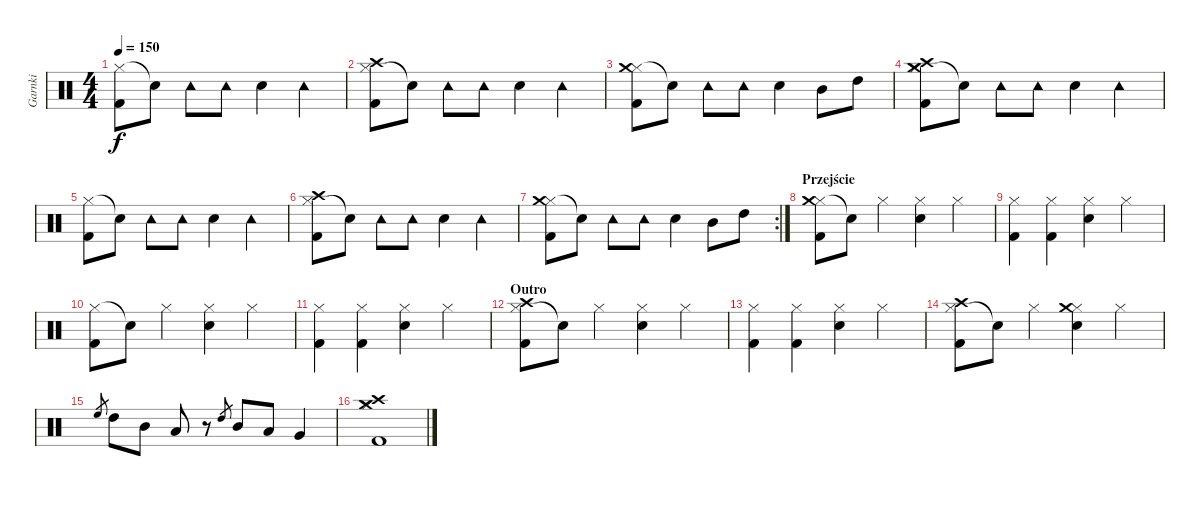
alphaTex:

\track ("Garnki" "Garnki") {instrument percussion}
\staff {score}
\articulation defaults
\ts (4 4)
\tempo 150
\clef neutral
\ks c
("Hi-Hat (closed)" "Kick (hit) 2").8{dy f} "Snare (hit)"{t}.8 "Tambourine (hit)".8 "Tambourine (hit)".8 "Snare (hit) 2".4 "Tambourine (hit)".4 |
("Hi-Hat (closed)" "Crash high (hit)" "Kick (hit) 2").8 "Snare (hit)"{t}.8 "Tambourine (hit)".8 "Tambourine (hit)".8 "Snare (hit) 2".4 "Tambourine (hit)".4 |
("Hi-Hat (closed)" "Crash medium (hit)" "Kick (hit) 2").8 "Snare (hit)"{t}.8 "Tambourine (hit)".8 "Tambourine (hit)".8 "Snare (hit) 2".4 "Mid Tom (hit)".8 "High Tom (hit)".8 |
("Hi-Hat (closed)" "Crash medium (hit)" "Kick (hit) 2" "Crash high (hit)").8 "Snare (hit)"{t}.8 "Tambourine (hit)".8 "Tambourine (hit)".8 "Snare (hit) 2".4 "Tambourine (hit)".4 |
("Hi-Hat (closed)" "Kick (hit) 2").8 "Snare (hit)"{t}.8 "Tambourine (hit)".8 "Tambourine (hit)".8 "Snare (hit) 2".4 "Tambourine (hit)".4 |
("Hi-Hat (closed)" "Crash high (hit)" "Kick (hit) 2").8 "Snare (hit)"{t}.8 "Tambourine (hit)".8 "Tambourine (hit)".8 "Snare (hit) 2".4 "Tambourine (hit)".4 |
\rc 2
("Hi-Hat (closed)" "Crash medium (hit)" "Kick (hit) 2").8 "Snare (hit)"{t}.8 "Tambourine (hit)".8 "Tambourine (hit)".8 "Snare (hit) 2".4 "Mid Tom (hit)".8 "High Tom (hit)".8 |
\section ("" "Przejście")
("Hi-Hat (closed)" "Crash medium (hit)" "Kick (hit) 2").8 "Snare (hit)"{t}.8 "Hi-Hat (closed)".4 ("Hi-Hat (closed)" "Snare (hit) 2").4 "Hi-Hat (closed)".4 |
("Hi-Hat (closed)" "Kick (hit) 2").4 ("Hi-Hat (closed)" "Kick (hit) 2").4 ("Hi-Hat (closed)" "Snare (hit) 2").4 "Hi-Hat (closed)".4 |
("Hi-Hat (closed)" "Kick (hit) 2").8 "Snare (hit)"{t}.8 "Hi-Hat (closed)".4 ("Hi-Hat (closed)" "Snare (hit) 2").4 "Hi-Hat (closed)".4 |
("Hi-Hat (closed)" "Kick (hit) 2").4 ("Hi-Hat (closed)" "Kick (hit) 2").4 ("Hi-Hat (closed)" "Snare (hit) 2").4 "Hi-Hat (closed)".4 |
\section ("" "Outro")
("Hi-Hat (closed)" "Crash high (hit)" "Kick (hit) 2").8 "Snare (hit)"{t}.8 "Hi-Hat (closed)".4 ("Hi-Hat (closed)" "Snare (hit) 2").4 "Hi-Hat (closed)".4 |
("Hi-Hat (closed)" "Kick (hit) 2").4 ("Hi-Hat (closed)" "Kick (hit) 2").4 ("Hi-Hat (closed)" "Snare (hit) 2").4 "Hi-Hat (closed)".4 |
("Hi-Hat (closed)" "Crash high (hit)" "Kick (hit) 2").8 "Snare (hit)"{t}.8 "Hi-Hat (closed)".4 ("Hi-Hat (closed)" "Crash medium (hit)" "Snare (hit) 2").4 "Hi-Hat (closed)".4 |
"High Floor Tom (hit)".8{gr} "High Tom (hit)".8 "Mid Tom (hit)".8 "Low Tom (hit)".8 r.8 "High Tom (hit)".8{gr} "Mid Tom (hit)".8 "Low Tom (hit)".8 "Very Low Tom (hit)".4 |
("Hi-Hat (closed)" "Crash high (hit)" "Kick (hit) 2" "Crash medium (hit)").1
